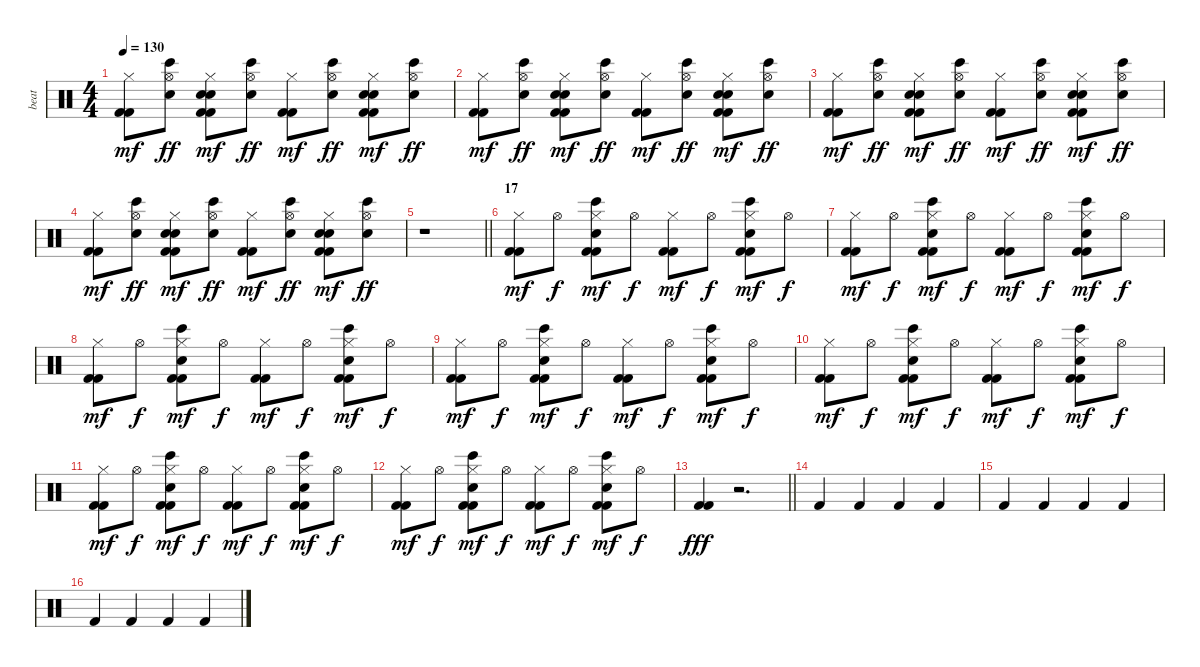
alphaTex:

\track ("beat" "beat") {instrument percussion}
\staff {score}
\articulation defaults
\ts (4 4)
\tempo 130
\clef neutral
\ks c
("Kick (hit) 2" "Kick (hit) 2" "Hi-Hat (closed)").8{dy mf} ("Bongo High (hit)" "Hand Clap (hit)" "Hi-Hat (open)").8{dy ff} ("Kick (hit) 2" "Kick (hit) 2" "Snare (hit) 2" "Electric Snare (hit)" "Hi-Hat (closed)").8{dy mf} ("Bongo High (hit)" "Hand Clap (hit)" "Hi-Hat (open)").8{dy ff} ("Kick (hit) 2" "Kick (hit) 2" "Hi-Hat (closed)").8{dy mf} ("Bongo High (hit)" "Hand Clap (hit)" "Hi-Hat (open)").8{dy ff} ("Kick (hit) 2" "Kick (hit) 2" "Snare (hit) 2" "Electric Snare (hit)" "Hi-Hat (closed)").8{dy mf} ("Bongo High (hit)" "Hand Clap (hit)" "Hi-Hat (open)").8{dy ff} |
("Kick (hit) 2" "Kick (hit) 2" "Hi-Hat (closed)").8{dy mf} ("Bongo High (hit)" "Hand Clap (hit)" "Hi-Hat (open)").8{dy ff} ("Kick (hit) 2" "Kick (hit) 2" "Snare (hit) 2" "Electric Snare (hit)" "Hi-Hat (closed)").8{dy mf} ("Bongo High (hit)" "Hand Clap (hit)" "Hi-Hat (open)").8{dy ff} ("Kick (hit) 2" "Kick (hit) 2" "Hi-Hat (closed)").8{dy mf} ("Bongo High (hit)" "Hand Clap (hit)" "Hi-Hat (open)").8{dy ff} ("Kick (hit) 2" "Kick (hit) 2" "Snare (hit) 2" "Electric Snare (hit)" "Hi-Hat (closed)").8{dy mf} ("Bongo High (hit)" "Hand Clap (hit)" "Hi-Hat (open)").8{dy ff} |
("Kick (hit) 2" "Kick (hit) 2" "Hi-Hat (closed)").8{dy mf} ("Bongo High (hit)" "Hand Clap (hit)" "Hi-Hat (open)").8{dy ff} ("Kick (hit) 2" "Kick (hit) 2" "Snare (hit) 2" "Electric Snare (hit)" "Hi-Hat (closed)").8{dy mf} ("Bongo High (hit)" "Hand Clap (hit)" "Hi-Hat (open)").8{dy ff} ("Kick (hit) 2" "Kick (hit) 2" "Hi-Hat (closed)").8{dy mf} ("Bongo High (hit)" "Hand Clap (hit)" "Hi-Hat (open)").8{dy ff} ("Kick (hit) 2" "Kick (hit) 2" "Snare (hit) 2" "Electric Snare (hit)" "Hi-Hat (closed)").8{dy mf} ("Bongo High (hit)" "Hand Clap (hit)" "Hi-Hat (open)").8{dy ff} |
("Kick (hit) 2" "Kick (hit) 2" "Hi-Hat (closed)").8{dy mf} ("Bongo High (hit)" "Hand Clap (hit)" "Hi-Hat (open)").8{dy ff} ("Kick (hit) 2" "Kick (hit) 2" "Snare (hit) 2" "Electric Snare (hit)" "Hi-Hat (closed)").8{dy mf} ("Bongo High (hit)" "Hand Clap (hit)" "Hi-Hat (open)").8{dy ff} ("Kick (hit) 2" "Kick (hit) 2" "Hi-Hat (closed)").8{dy mf} ("Bongo High (hit)" "Hand Clap (hit)" "Hi-Hat (open)").8{dy ff} ("Kick (hit) 2" "Kick (hit) 2" "Snare (hit) 2" "Electric Snare (hit)" "Hi-Hat (closed)").8{dy mf} ("Bongo High (hit)" "Hand Clap (hit)" "Hi-Hat (open)").8{dy ff} |
\barLineRight lightlight
r.1 |
\section ("" "17")
("Kick (hit) 2" "Kick (hit) 2" "Hi-Hat (closed)").8{dy mf} "Hi-Hat (open)".8{dy f} ("Kick (hit) 2" "Kick (hit) 2" "Bongo High (hit)" "Hand Clap (hit)" "Hi-Hat (closed)").8{dy mf} "Hi-Hat (open)".8{dy f} ("Kick (hit) 2" "Kick (hit) 2" "Hi-Hat (closed)").8{dy mf} "Hi-Hat (open)".8{dy f} ("Kick (hit) 2" "Kick (hit) 2" "Bongo High (hit)" "Hand Clap (hit)" "Hi-Hat (closed)").8{dy mf} "Hi-Hat (open)".8{dy f} |
("Kick (hit) 2" "Kick (hit) 2" "Hi-Hat (closed)").8{dy mf} "Hi-Hat (open)".8{dy f} ("Kick (hit) 2" "Kick (hit) 2" "Bongo High (hit)" "Hand Clap (hit)" "Hi-Hat (closed)").8{dy mf} "Hi-Hat (open)".8{dy f} ("Kick (hit) 2" "Kick (hit) 2" "Hi-Hat (closed)").8{dy mf} "Hi-Hat (open)".8{dy f} ("Kick (hit) 2" "Kick (hit) 2" "Bongo High (hit)" "Hand Clap (hit)" "Hi-Hat (closed)").8{dy mf} "Hi-Hat (open)".8{dy f} |
("Kick (hit) 2" "Kick (hit) 2" "Hi-Hat (closed)").8{dy mf} "Hi-Hat (open)".8{dy f} ("Kick (hit) 2" "Kick (hit) 2" "Bongo High (hit)" "Hand Clap (hit)" "Hi-Hat (closed)").8{dy mf} "Hi-Hat (open)".8{dy f} ("Kick (hit) 2" "Kick (hit) 2" "Hi-Hat (closed)").8{dy mf} "Hi-Hat (open)".8{dy f} ("Kick (hit) 2" "Kick (hit) 2" "Bongo High (hit)" "Hand Clap (hit)" "Hi-Hat (closed)").8{dy mf} "Hi-Hat (open)".8{dy f} |
("Kick (hit) 2" "Kick (hit) 2" "Hi-Hat (closed)").8{dy mf} "Hi-Hat (open)".8{dy f} ("Kick (hit) 2" "Kick (hit) 2" "Bongo High (hit)" "Hand Clap (hit)" "Hi-Hat (closed)").8{dy mf} "Hi-Hat (open)".8{dy f} ("Kick (hit) 2" "Kick (hit) 2" "Hi-Hat (closed)").8{dy mf} "Hi-Hat (open)".8{dy f} ("Kick (hit) 2" "Kick (hit) 2" "Bongo High (hit)" "Hand Clap (hit)" "Hi-Hat (closed)").8{dy mf} "Hi-Hat (open)".8{dy f} |
("Kick (hit) 2" "Kick (hit) 2" "Hi-Hat (closed)").8{dy mf} "Hi-Hat (open)".8{dy f} ("Kick (hit) 2" "Kick (hit) 2" "Bongo High (hit)" "Hand Clap (hit)" "Hi-Hat (closed)").8{dy mf} "Hi-Hat (open)".8{dy f} ("Kick (hit) 2" "Kick (hit) 2" "Hi-Hat (closed)").8{dy mf} "Hi-Hat (open)".8{dy f} ("Kick (hit) 2" "Kick (hit) 2" "Bongo High (hit)" "Hand Clap (hit)" "Hi-Hat (closed)").8{dy mf} "Hi-Hat (open)".8{dy f} |
("Kick (hit) 2" "Kick (hit) 2" "Hi-Hat (closed)").8{dy mf} "Hi-Hat (open)".8{dy f} ("Kick (hit) 2" "Kick (hit) 2" "Bongo High (hit)" "Hand Clap (hit)" "Hi-Hat (closed)").8{dy mf} "Hi-Hat (open)".8{dy f} ("Kick (hit) 2" "Kick (hit) 2" "Hi-Hat (closed)").8{dy mf} "Hi-Hat (open)".8{dy f} ("Kick (hit) 2" "Kick (hit) 2" "Bongo High (hit)" "Hand Clap (hit)" "Hi-Hat (closed)").8{dy mf} "Hi-Hat (open)".8{dy f} |
("Kick (hit) 2" "Kick (hit) 2" "Hi-Hat (closed)").8{dy mf} "Hi-Hat (open)".8{dy f} ("Kick (hit) 2" "Kick (hit) 2" "Bongo High (hit)" "Hand Clap (hit)" "Hi-Hat (closed)").8{dy mf} "Hi-Hat (open)".8{dy f} ("Kick (hit) 2" "Kick (hit) 2" "Hi-Hat (closed)").8{dy mf} "Hi-Hat (open)".8{dy f} ("Kick (hit) 2" "Kick (hit) 2" "Bongo High (hit)" "Hand Clap (hit)" "Hi-Hat (closed)").8{dy mf} "Hi-Hat (open)".8{dy f} |
\barLineRight lightlight
("Kick (hit) 2" "Kick (hit) 2").4{dy fff} r.2{d} |
"Kick (hit) 2".4 "Kick (hit) 2".4 "Kick (hit) 2".4 "Kick (hit) 2".4 |
"Kick (hit) 2".4 "Kick (hit) 2".4 "Kick (hit) 2".4 "Kick (hit) 2".4 |
"Kick (hit) 2".4 "Kick (hit) 2".4 "Kick (hit) 2".4 "Kick (hit) 2".4
